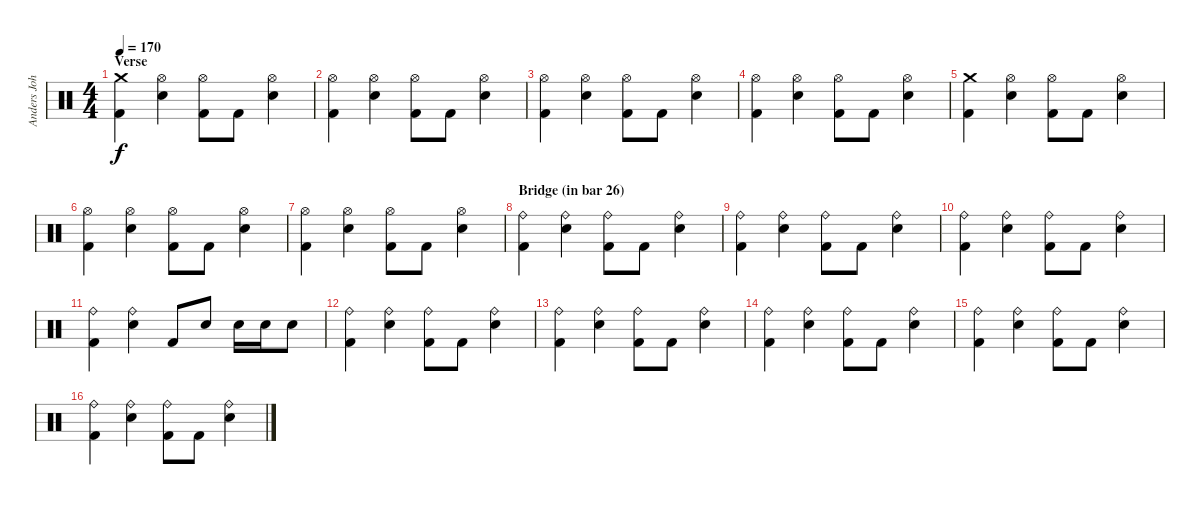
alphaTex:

\track ("Anders Johansson" "Anders Joh") {instrument percussion}
\staff {score}
\articulation defaults
\ts (4 4)
\section ("" "Verse")
\tempo 170
\clef neutral
\ks c
("Crash medium (hit)" "Kick (hit) 2").4{dy f} ("Hi-Hat (open)" "Snare (hit) 2").4 ("Hi-Hat (open)" "Kick (hit) 2").8 "Kick (hit) 2".8 ("Hi-Hat (open)" "Snare (hit) 2").4 |
("Hi-Hat (open)" "Kick (hit) 2").4 ("Hi-Hat (open)" "Snare (hit) 2").4 ("Hi-Hat (open)" "Kick (hit) 2").8 "Kick (hit) 2".8 ("Hi-Hat (open)" "Snare (hit) 2").4 |
("Hi-Hat (open)" "Kick (hit) 2").4 ("Hi-Hat (open)" "Snare (hit) 2").4 ("Hi-Hat (open)" "Kick (hit) 2").8 "Kick (hit) 2".8 ("Hi-Hat (open)" "Snare (hit) 2").4 |
("Hi-Hat (open)" "Kick (hit) 2").4 ("Hi-Hat (open)" "Snare (hit) 2").4 ("Hi-Hat (open)" "Kick (hit) 2").8 "Kick (hit) 2".8 ("Hi-Hat (open)" "Snare (hit) 2").4 |
("Crash medium (hit)" "Kick (hit) 2").4 ("Hi-Hat (open)" "Snare (hit) 2").4 ("Hi-Hat (open)" "Kick (hit) 2").8 "Kick (hit) 2".8 ("Hi-Hat (open)" "Snare (hit) 2").4 |
("Hi-Hat (open)" "Kick (hit) 2").4 ("Hi-Hat (open)" "Snare (hit) 2").4 ("Hi-Hat (open)" "Kick (hit) 2").8 "Kick (hit) 2".8 ("Hi-Hat (open)" "Snare (hit) 2").4 |
("Hi-Hat (open)" "Kick (hit) 2").4 ("Hi-Hat (open)" "Snare (hit) 2").4 ("Hi-Hat (open)" "Kick (hit) 2").8 "Kick (hit) 2".8 ("Hi-Hat (open)" "Snare (hit) 2").4 |
\section ("" "Bridge (in bar 26)")
("Ride (bell)" "Kick (hit) 2").4 ("Ride (bell)" "Snare (hit) 2").4 ("Ride (bell)" "Kick (hit) 2").8 "Kick (hit) 2".8 ("Ride (bell)" "Snare (hit) 2").4 |
("Ride (bell)" "Kick (hit) 2").4 ("Ride (bell)" "Snare (hit) 2").4 ("Ride (bell)" "Kick (hit) 2").8 "Kick (hit) 2".8 ("Ride (bell)" "Snare (hit) 2").4 |
("Ride (bell)" "Kick (hit) 2").4 ("Ride (bell)" "Snare (hit) 2").4 ("Ride (bell)" "Kick (hit) 2").8 "Kick (hit) 2".8 ("Ride (bell)" "Snare (hit) 2").4 |
("Ride (bell)" "Kick (hit) 2").4 ("Ride (bell)" "Snare (hit) 2").4 "Kick (hit) 2".8 "Snare (hit) 2".8 "Snare (hit) 2".16 "Snare (hit) 2".16 "Snare (hit) 2".8 |
("Ride (bell)" "Kick (hit) 2").4 ("Ride (bell)" "Snare (hit) 2").4 ("Ride (bell)" "Kick (hit) 2").8 "Kick (hit) 2".8 ("Ride (bell)" "Snare (hit) 2").4 |
("Ride (bell)" "Kick (hit) 2").4 ("Ride (bell)" "Snare (hit) 2").4 ("Ride (bell)" "Kick (hit) 2").8 "Kick (hit) 2".8 ("Ride (bell)" "Snare (hit) 2").4 |
("Ride (bell)" "Kick (hit) 2").4 ("Ride (bell)" "Snare (hit) 2").4 ("Ride (bell)" "Kick (hit) 2").8 "Kick (hit) 2".8 ("Ride (bell)" "Snare (hit) 2").4 |
("Ride (bell)" "Kick (hit) 2").4 ("Ride (bell)" "Snare (hit) 2").4 ("Ride (bell)" "Kick (hit) 2").8 "Kick (hit) 2".8 ("Ride (bell)" "Snare (hit) 2").4 |
("Ride (bell)" "Kick (hit) 2").4 ("Ride (bell)" "Snare (hit) 2").4 ("Ride (bell)" "Kick (hit) 2").8 "Kick (hit) 2".8 ("Ride (bell)" "Snare (hit) 2").4
